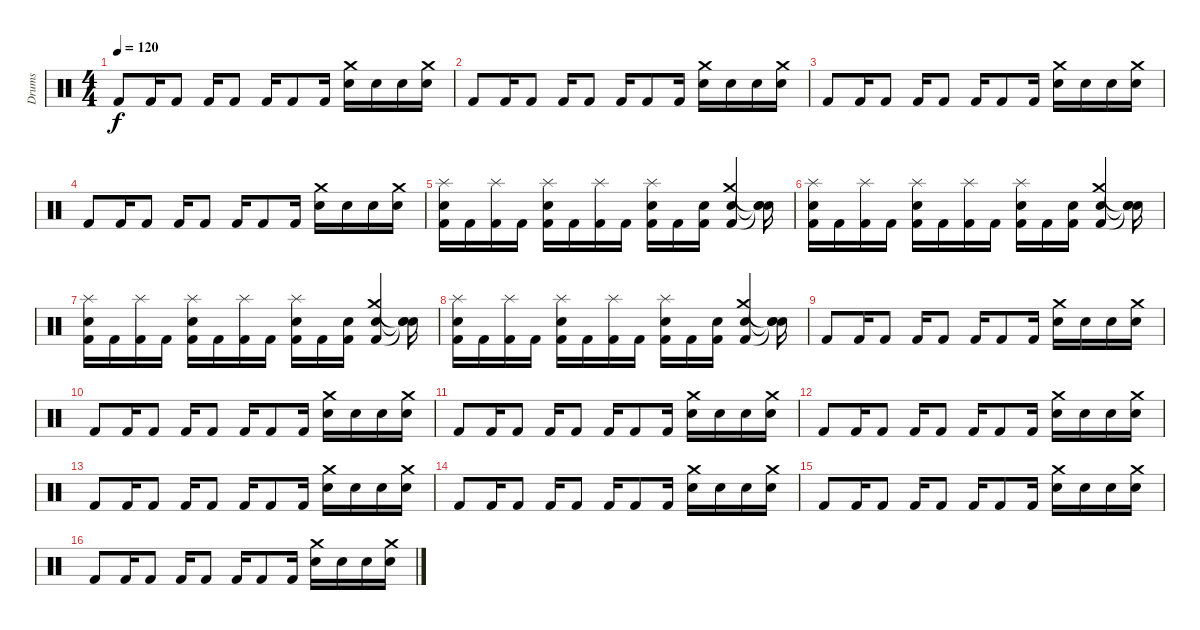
\track ("Drums" "Drums") {instrument percussion}
\staff {score}
\articulation defaults
\ts (4 4)
\tempo 120
\clef neutral
\ks c "Kick (hit) 2".8{dy f} "Kick (hit) 2".16 "Kick (hit) 2".8 "Kick (hit) 2".16 "Kick (hit) 2".8 "Kick (hit) 2".16 "Kick (hit) 2".8 "Kick (hit) 2".16
("Crash medium (hit)" "Snare (hit) 2").16 "Snare (hit) 2".16 "Snare (hit) 2".16 ("Crash medium (hit)" "Snare (hit) 2").16 |
"Kick (hit) 2".8 "Kick (hit) 2".16 "Kick (hit) 2".8 "Kick (hit) 2".16 "Kick (hit) 2".8 "Kick (hit) 2".16 "Kick (hit) 2".8 "Kick (hit) 2".16 ("Crash medium (hit)" "Snare (hit) 2").16 "Snare (hit) 2".16 "Snare (hit) 2".16 ("Crash medium (hit)" "Snare (hit) 2").16 |
"Kick (hit) 2".8 "Kick (hit) 2".16 "Kick (hit) 2".8 "Kick (hit) 2".16 "Kick (hit) 2".8 "Kick (hit) 2".16 "Kick (hit) 2".8 "Kick (hit) 2".16 ("Crash medium (hit)" "Snare (hit) 2").16 "Snare (hit) 2".16 "Snare (hit) 2".16 ("Crash medium (hit)" "Snare (hit) 2").16 |
"Kick (hit) 2".8 "Kick (hit) 2".16 "Kick (hit) 2".8 "Kick (hit) 2".16 "Kick (hit) 2".8 "Kick (hit) 2".16 "Kick (hit) 2".8 "Kick (hit) 2".16 ("Crash medium (hit)" "Snare (hit) 2").16 "Snare (hit) 2".16 "Snare (hit) 2".16 ("Crash medium (hit)" "Snare (hit) 2").16 |
("Splash (hit)" "Snare (hit) 2" "Kick (hit) 2").16 "Kick (hit) 2".16 ("Splash (hit)" "Kick (hit) 2").16 "Kick (hit) 2".16 ("Splash (hit)" "Snare (hit) 2" "Kick (hit) 2").16 "Kick (hit) 2".16 ("Splash (hit)" "Kick (hit) 2").16 "Kick (hit) 2".16 ("Splash (hit)" "Snare (hit) 2" "Kick (hit) 2").16 "Kick (hit) 2".16 ("Snare (hit) 2" "Kick (hit) 2").16 ("Crash medium (hit)" "Snare (hit) 2" "Kick (hit) 2").4 ("Snare (hit)"{t} "Snare (hit)"{t} "Snare (hit)"{t}).16 |
("Splash (hit)" "Snare (hit) 2" "Kick (hit) 2").16 "Kick (hit) 2".16 ("Splash (hit)" "Kick (hit) 2").16 "Kick (hit) 2".16 ("Splash (hit)" "Snare (hit) 2" "Kick (hit) 2").16 "Kick (hit) 2".16 ("Splash (hit)" "Kick (hit) 2").16 "Kick (hit) 2".16 ("Splash (hit)" "Snare (hit) 2" "Kick (hit) 2").16 "Kick (hit) 2".16 ("Snare (hit) 2" "Kick (hit) 2").16 ("Crash medium (hit)" "Snare (hit) 2" "Kick (hit) 2").4 ("Snare (hit)"{t} "Snare (hit)"{t} "Snare (hit)"{t}).16 |
("Splash (hit)" "Snare (hit) 2" "Kick (hit) 2").16 "Kick (hit) 2".16 ("Splash (hit)" "Kick (hit) 2").16 "Kick (hit) 2".16 ("Splash (hit)" "Snare (hit) 2" "Kick (hit) 2").16 "Kick (hit) 2".16 ("Splash (hit)" "Kick (hit) 2").16 "Kick (hit) 2".16 ("Splash (hit)" "Snare (hit) 2" "Kick (hit) 2").16 "Kick (hit) 2".16 ("Snare (hit) 2" "Kick (hit) 2").16 ("Crash medium (hit)" "Snare (hit) 2" "Kick (hit) 2").4 ("Snare (hit)"{t} "Snare (hit)"{t} "Snare (hit)"{t}).16 |
("Splash (hit)" "Snare (hit) 2" "Kick (hit) 2").16 "Kick (hit) 2".16 ("Splash (hit)" "Kick (hit) 2").16 "Kick (hit) 2".16 ("Splash (hit)" "Snare (hit) 2" "Kick (hit) 2").16 "Kick (hit) 2".16 ("Splash (hit)" "Kick (hit) 2").16 "Kick (hit) 2".16 ("Splash (hit)" "Snare (hit) 2" "Kick (hit) 2").16 "Kick (hit) 2".16 ("Snare (hit) 2" "Kick (hit) 2").16 ("Crash medium (hit)" "Snare (hit) 2" "Kick (hit) 2").4 ("Snare (hit)"{t} "Snare (hit)"{t} "Snare (hit)"{t}).16 |
"Kick (hit) 2".8 "Kick (hit) 2".16 "Kick (hit) 2".8 "Kick (hit) 2".16 "Kick (hit) 2".8 "Kick (hit) 2".16 "Kick (hit) 2".8 "Kick (hit) 2".16 ("Crash medium (hit)" "Snare (hit) 2").16 "Snare (hit) 2".16 "Snare (hit) 2".16 ("Crash medium (hit)" "Snare (hit) 2").16 |
"Kick (hit) 2".8 "Kick (hit) 2".16 "Kick (hit) 2".8 "Kick (hit) 2".16 "Kick (hit) 2".8 "Kick (hit) 2".16 "Kick (hit) 2".8 "Kick (hit) 2".16 ("Crash medium (hit)" "Snare (hit) 2").16 "Snare (hit) 2".16 "Snare (hit) 2".16 ("Crash medium (hit)" "Snare (hit) 2").16 |
"Kick (hit) 2".8 "Kick (hit) 2".16 "Kick (hit) 2".8 "Kick (hit) 2".16 "Kick (hit) 2".8 "Kick (hit) 2".16 "Kick (hit) 2".8 "Kick (hit) 2".16 ("Crash medium (hit)" "Snare (hit) 2").16 "Snare (hit) 2".16 "Snare (hit) 2".16 ("Crash medium (hit)" "Snare (hit) 2").16 |
"Kick (hit) 2".8 "Kick (hit) 2".16 "Kick (hit) 2".8 "Kick (hit) 2".16 "Kick (hit) 2".8 "Kick (hit) 2".16 "Kick (hit) 2".8 "Kick (hit) 2".16 ("Crash medium (hit)" "Snare (hit) 2").16 "Snare (hit) 2".16 "Snare (hit) 2".16 ("Crash medium (hit)" "Snare (hit) 2").16 |
"Kick (hit) 2".8 "Kick (hit) 2".16 "Kick (hit) 2".8 "Kick (hit) 2".16 "Kick (hit) 2".8 "Kick (hit) 2".16 "Kick (hit) 2".8 "Kick (hit) 2".16 ("Crash medium (hit)" "Snare (hit) 2").16 "Snare (hit) 2".16 "Snare (hit) 2".16 ("Crash medium (hit)" "Snare (hit) 2").16 |
"Kick (hit) 2".8 "Kick (hit) 2".16 "Kick (hit) 2".8 "Kick (hit) 2".16 "Kick (hit) 2".8 "Kick (hit) 2".16 "Kick (hit) 2".8 "Kick (hit) 2".16 ("Crash medium (hit)" "Snare (hit) 2").16 "Snare (hit) 2".16 "Snare (hit) 2".16 ("Crash medium (hit)" "Snare (hit) 2").16 |
"Kick (hit) 2".8 "Kick (hit) 2".16 "Kick (hit) 2".8 "Kick (hit) 2".16 "Kick (hit) 2".8 "Kick (hit) 2".16 "Kick (hit) 2".8 "Kick (hit) 2".16 ("Crash medium (hit)" "Snare (hit) 2").16 "Snare (hit) 2".16 "Snare (hit) 2".16 ("Crash medium (hit)" "Snare (hit) 2").16 |
"Kick (hit) 2".8 "Kick (hit) 2".16 "Kick (hit) 2".8 "Kick (hit) 2".16 "Kick (hit) 2".8 "Kick (hit) 2".16 "Kick (hit) 2".8 "Kick (hit) 2".16 ("Crash medium (hit)" "Snare (hit) 2").16 "Snare (hit) 2".16 "Snare (hit) 2".16 ("Crash medium (hit)" "Snare (hit) 2").16
